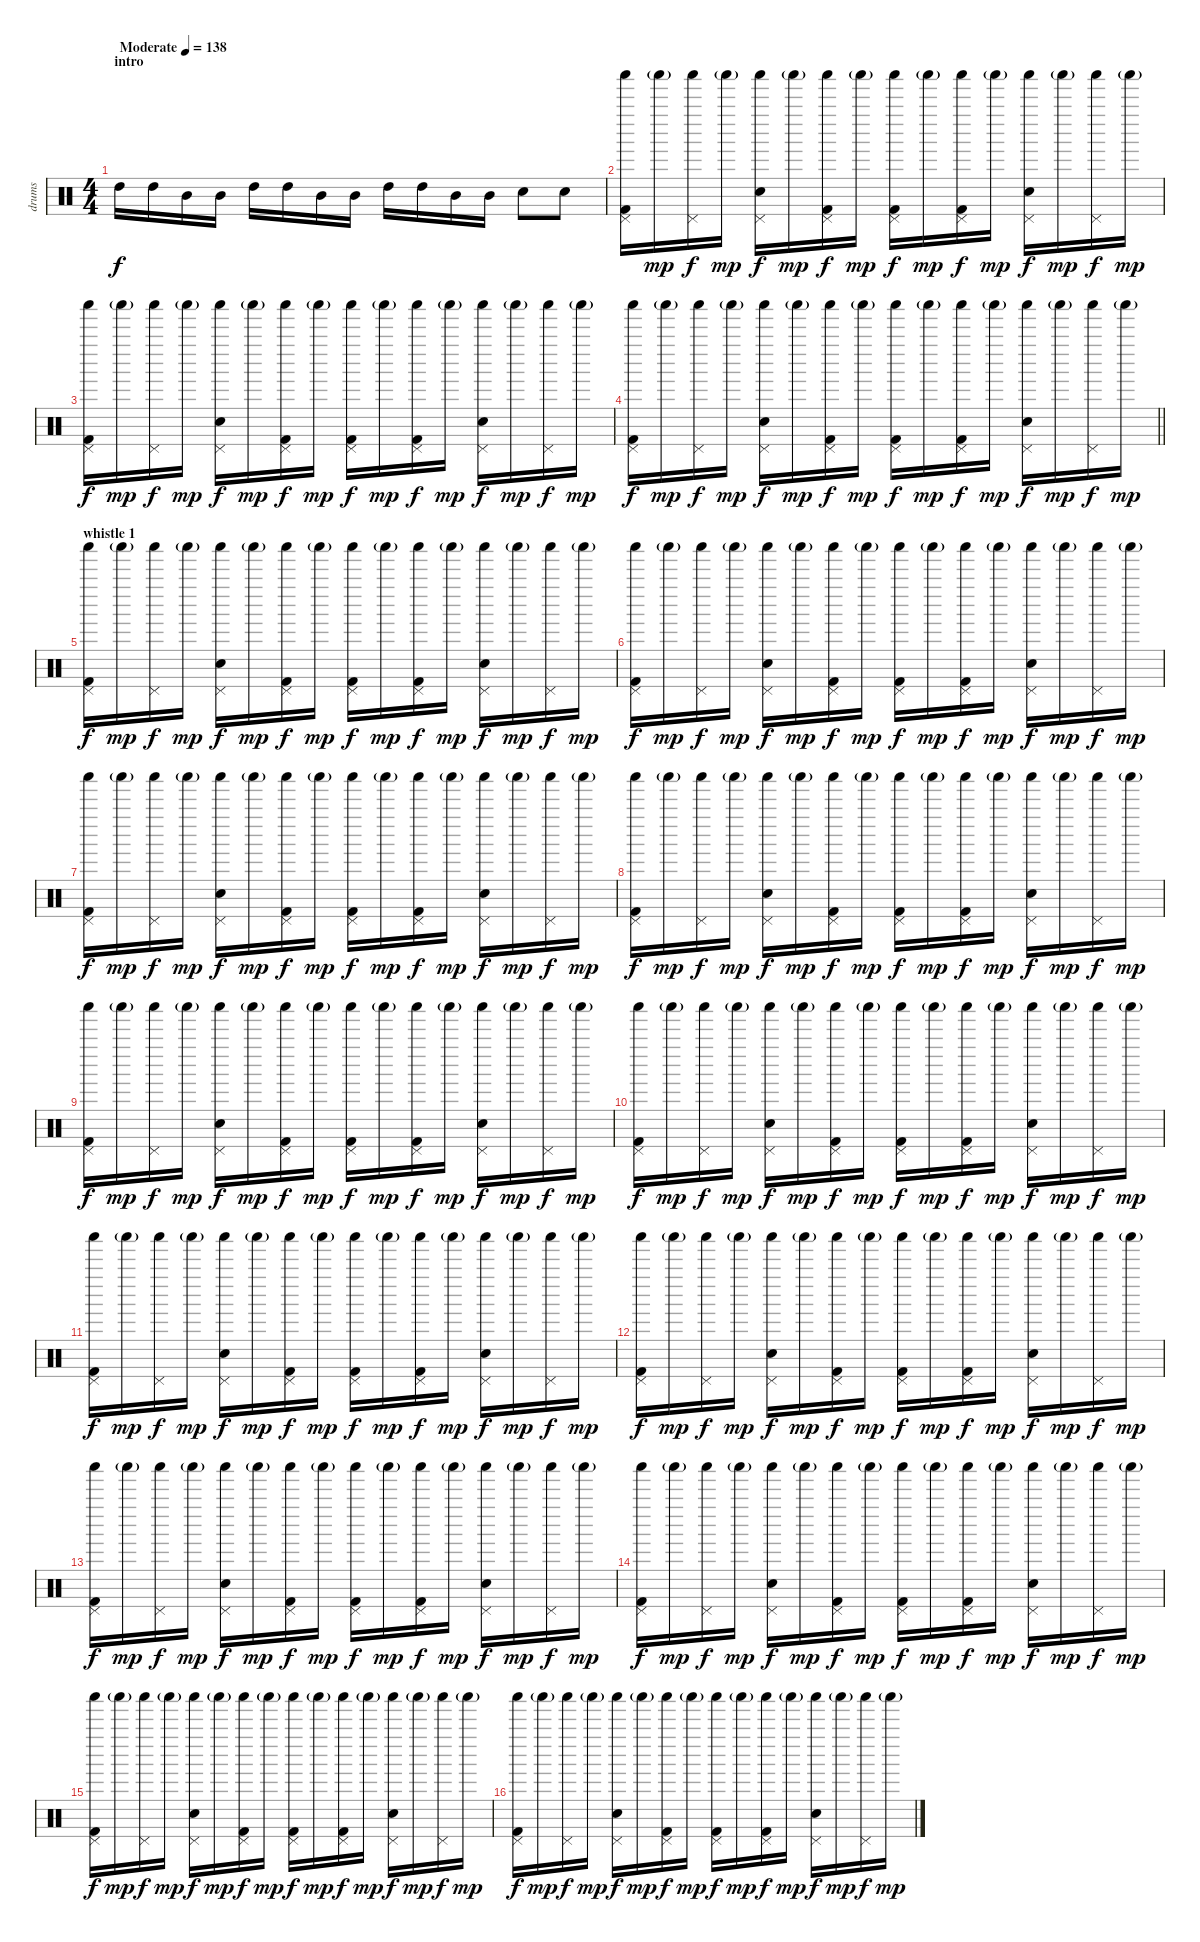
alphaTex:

\track ("drums" "drums") {instrument percussion}
\staff {score}
\articulation defaults
\ts (4 4)
\section ("" "intro")
\tempo (138 "Moderate")
\clef neutral
\ks c "High Tom (hit)".16{dy f} "High Tom (hit)".16 "Mid Tom (hit)".16 "Mid Tom (hit)".16 "High Tom (hit)".16 "High Tom (hit)".16 "Mid Tom (hit)".16 "Mid Tom (hit)".16 "High Tom (hit)".16 "High Tom (hit)".16 "Mid Tom (hit)".16 "Mid Tom (hit)".16 "Electric Snare (hit)".8 "Electric Snare (hit)".8
|
("Kick (hit) 2" "Pedal Hi-Hat (hit)" "Shaker (hit)").16 "Shaker (hit)"{g}.16{dy mp} ("Pedal Hi-Hat (hit)" "Shaker (hit)").16{dy f} "Shaker (hit)"{g}.16{dy mp} ("Electric Snare (hit)" "Pedal Hi-Hat (hit)" "Shaker (hit)").16{dy f} "Shaker (hit)"{g}.16{dy mp} ("Kick (hit) 2" "Pedal Hi-Hat (hit)" "Shaker (hit)").16{dy f} "Shaker (hit)"{g}.16{dy mp} ("Kick (hit) 2" "Pedal Hi-Hat (hit)" "Shaker (hit)").16{dy f} "Shaker (hit)"{g}.16{dy mp} ("Kick (hit) 2" "Pedal Hi-Hat (hit)" "Shaker (hit)").16{dy f} "Shaker (hit)"{g}.16{dy mp} ("Electric Snare (hit)" "Pedal Hi-Hat (hit)" "Shaker (hit)").16{dy f} "Shaker (hit)"{g}.16{dy mp} ("Pedal Hi-Hat (hit)" "Shaker (hit)").16{dy f} "Shaker (hit)"{g}.16{dy mp} |
("Kick (hit) 2" "Pedal Hi-Hat (hit)" "Shaker (hit)").16{dy f} "Shaker (hit)"{g}.16{dy mp} ("Pedal Hi-Hat (hit)" "Shaker (hit)").16{dy f} "Shaker (hit)"{g}.16{dy mp} ("Electric Snare (hit)" "Pedal Hi-Hat (hit)" "Shaker (hit)").16{dy f} "Shaker (hit)"{g}.16{dy mp} ("Kick (hit) 2" "Pedal Hi-Hat (hit)" "Shaker (hit)").16{dy f} "Shaker (hit)"{g}.16{dy mp} ("Kick (hit) 2" "Pedal Hi-Hat (hit)" "Shaker (hit)").16{dy f} "Shaker (hit)"{g}.16{dy mp} ("Kick (hit) 2" "Pedal Hi-Hat (hit)" "Shaker (hit)").16{dy f} "Shaker (hit)"{g}.16{dy mp} ("Electric Snare (hit)" "Pedal Hi-Hat (hit)" "Shaker (hit)").16{dy f} "Shaker (hit)"{g}.16{dy mp} ("Pedal Hi-Hat (hit)" "Shaker (hit)").16{dy f} "Shaker (hit)"{g}.16{dy mp} |
\barLineRight lightlight
("Kick (hit) 2" "Pedal Hi-Hat (hit)" "Shaker (hit)").16{dy f} "Shaker (hit)"{g}.16{dy mp} ("Pedal Hi-Hat (hit)" "Shaker (hit)").16{dy f} "Shaker (hit)"{g}.16{dy mp} ("Electric Snare (hit)" "Pedal Hi-Hat (hit)" "Shaker (hit)").16{dy f} "Shaker (hit)"{g}.16{dy mp} ("Kick (hit) 2" "Pedal Hi-Hat (hit)" "Shaker (hit)").16{dy f} "Shaker (hit)"{g}.16{dy mp} ("Kick (hit) 2" "Pedal Hi-Hat (hit)" "Shaker (hit)").16{dy f} "Shaker (hit)"{g}.16{dy mp} ("Kick (hit) 2" "Pedal Hi-Hat (hit)" "Shaker (hit)").16{dy f} "Shaker (hit)"{g}.16{dy mp} ("Electric Snare (hit)" "Pedal Hi-Hat (hit)" "Shaker (hit)").16{dy f} "Shaker (hit)"{g}.16{dy mp} ("Pedal Hi-Hat (hit)" "Shaker (hit)").16{dy f} "Shaker (hit)"{g}.16{dy mp} |
\section ("" "whistle 1")
("Kick (hit) 2" "Pedal Hi-Hat (hit)" "Shaker (hit)").16{dy f} "Shaker (hit)"{g}.16{dy mp} ("Pedal Hi-Hat (hit)" "Shaker (hit)").16{dy f} "Shaker (hit)"{g}.16{dy mp} ("Electric Snare (hit)" "Pedal Hi-Hat (hit)" "Shaker (hit)").16{dy f} "Shaker (hit)"{g}.16{dy mp} ("Kick (hit) 2" "Pedal Hi-Hat (hit)" "Shaker (hit)").16{dy f} "Shaker (hit)"{g}.16{dy mp} ("Kick (hit) 2" "Pedal Hi-Hat (hit)" "Shaker (hit)").16{dy f} "Shaker (hit)"{g}.16{dy mp} ("Kick (hit) 2" "Pedal Hi-Hat (hit)" "Shaker (hit)").16{dy f} "Shaker (hit)"{g}.16{dy mp} ("Electric Snare (hit)" "Pedal Hi-Hat (hit)" "Shaker (hit)").16{dy f} "Shaker (hit)"{g}.16{dy mp} ("Pedal Hi-Hat (hit)" "Shaker (hit)").16{dy f} "Shaker (hit)"{g}.16{dy mp} |
("Kick (hit) 2" "Pedal Hi-Hat (hit)" "Shaker (hit)").16{dy f} "Shaker (hit)"{g}.16{dy mp} ("Pedal Hi-Hat (hit)" "Shaker (hit)").16{dy f} "Shaker (hit)"{g}.16{dy mp} ("Electric Snare (hit)" "Pedal Hi-Hat (hit)" "Shaker (hit)").16{dy f} "Shaker (hit)"{g}.16{dy mp} ("Kick (hit) 2" "Pedal Hi-Hat (hit)" "Shaker (hit)").16{dy f} "Shaker (hit)"{g}.16{dy mp} ("Kick (hit) 2" "Pedal Hi-Hat (hit)" "Shaker (hit)").16{dy f} "Shaker (hit)"{g}.16{dy mp} ("Kick (hit) 2" "Pedal Hi-Hat (hit)" "Shaker (hit)").16{dy f} "Shaker (hit)"{g}.16{dy mp} ("Electric Snare (hit)" "Pedal Hi-Hat (hit)" "Shaker (hit)").16{dy f} "Shaker (hit)"{g}.16{dy mp} ("Pedal Hi-Hat (hit)" "Shaker (hit)").16{dy f} "Shaker (hit)"{g}.16{dy mp} |
("Kick (hit) 2" "Pedal Hi-Hat (hit)" "Shaker (hit)").16{dy f} "Shaker (hit)"{g}.16{dy mp} ("Pedal Hi-Hat (hit)" "Shaker (hit)").16{dy f} "Shaker (hit)"{g}.16{dy mp} ("Electric Snare (hit)" "Pedal Hi-Hat (hit)" "Shaker (hit)").16{dy f} "Shaker (hit)"{g}.16{dy mp} ("Kick (hit) 2" "Pedal Hi-Hat (hit)" "Shaker (hit)").16{dy f} "Shaker (hit)"{g}.16{dy mp} ("Kick (hit) 2" "Pedal Hi-Hat (hit)" "Shaker (hit)").16{dy f} "Shaker (hit)"{g}.16{dy mp} ("Kick (hit) 2" "Pedal Hi-Hat (hit)" "Shaker (hit)").16{dy f} "Shaker (hit)"{g}.16{dy mp} ("Electric Snare (hit)" "Pedal Hi-Hat (hit)" "Shaker (hit)").16{dy f} "Shaker (hit)"{g}.16{dy mp} ("Pedal Hi-Hat (hit)" "Shaker (hit)").16{dy f} "Shaker (hit)"{g}.16{dy mp} |
("Kick (hit) 2" "Pedal Hi-Hat (hit)" "Shaker (hit)").16{dy f} "Shaker (hit)"{g}.16{dy mp} ("Pedal Hi-Hat (hit)" "Shaker (hit)").16{dy f} "Shaker (hit)"{g}.16{dy mp} ("Electric Snare (hit)" "Pedal Hi-Hat (hit)" "Shaker (hit)").16{dy f} "Shaker (hit)"{g}.16{dy mp} ("Kick (hit) 2" "Pedal Hi-Hat (hit)" "Shaker (hit)").16{dy f} "Shaker (hit)"{g}.16{dy mp} ("Kick (hit) 2" "Pedal Hi-Hat (hit)" "Shaker (hit)").16{dy f} "Shaker (hit)"{g}.16{dy mp} ("Kick (hit) 2" "Pedal Hi-Hat (hit)" "Shaker (hit)").16{dy f} "Shaker (hit)"{g}.16{dy mp} ("Electric Snare (hit)" "Pedal Hi-Hat (hit)" "Shaker (hit)").16{dy f} "Shaker (hit)"{g}.16{dy mp} ("Pedal Hi-Hat (hit)" "Shaker (hit)").16{dy f} "Shaker (hit)"{g}.16{dy mp} |
("Kick (hit) 2" "Pedal Hi-Hat (hit)" "Shaker (hit)").16{dy f} "Shaker (hit)"{g}.16{dy mp} ("Pedal Hi-Hat (hit)" "Shaker (hit)").16{dy f} "Shaker (hit)"{g}.16{dy mp} ("Electric Snare (hit)" "Pedal Hi-Hat (hit)" "Shaker (hit)").16{dy f} "Shaker (hit)"{g}.16{dy mp} ("Kick (hit) 2" "Pedal Hi-Hat (hit)" "Shaker (hit)").16{dy f} "Shaker (hit)"{g}.16{dy mp} ("Kick (hit) 2" "Pedal Hi-Hat (hit)" "Shaker (hit)").16{dy f} "Shaker (hit)"{g}.16{dy mp} ("Kick (hit) 2" "Pedal Hi-Hat (hit)" "Shaker (hit)").16{dy f} "Shaker (hit)"{g}.16{dy mp} ("Electric Snare (hit)" "Pedal Hi-Hat (hit)" "Shaker (hit)").16{dy f} "Shaker (hit)"{g}.16{dy mp} ("Pedal Hi-Hat (hit)" "Shaker (hit)").16{dy f} "Shaker (hit)"{g}.16{dy mp} |
("Kick (hit) 2" "Pedal Hi-Hat (hit)" "Shaker (hit)").16{dy f} "Shaker (hit)"{g}.16{dy mp} ("Pedal Hi-Hat (hit)" "Shaker (hit)").16{dy f} "Shaker (hit)"{g}.16{dy mp} ("Electric Snare (hit)" "Pedal Hi-Hat (hit)" "Shaker (hit)").16{dy f} "Shaker (hit)"{g}.16{dy mp} ("Kick (hit) 2" "Pedal Hi-Hat (hit)" "Shaker (hit)").16{dy f} "Shaker (hit)"{g}.16{dy mp} ("Kick (hit) 2" "Pedal Hi-Hat (hit)" "Shaker (hit)").16{dy f} "Shaker (hit)"{g}.16{dy mp} ("Kick (hit) 2" "Pedal Hi-Hat (hit)" "Shaker (hit)").16{dy f} "Shaker (hit)"{g}.16{dy mp} ("Electric Snare (hit)" "Pedal Hi-Hat (hit)" "Shaker (hit)").16{dy f} "Shaker (hit)"{g}.16{dy mp} ("Pedal Hi-Hat (hit)" "Shaker (hit)").16{dy f} "Shaker (hit)"{g}.16{dy mp} |
("Kick (hit) 2" "Pedal Hi-Hat (hit)" "Shaker (hit)").16{dy f} "Shaker (hit)"{g}.16{dy mp} ("Pedal Hi-Hat (hit)" "Shaker (hit)").16{dy f} "Shaker (hit)"{g}.16{dy mp} ("Electric Snare (hit)" "Pedal Hi-Hat (hit)" "Shaker (hit)").16{dy f} "Shaker (hit)"{g}.16{dy mp} ("Kick (hit) 2" "Pedal Hi-Hat (hit)" "Shaker (hit)").16{dy f} "Shaker (hit)"{g}.16{dy mp} ("Kick (hit) 2" "Pedal Hi-Hat (hit)" "Shaker (hit)").16{dy f} "Shaker (hit)"{g}.16{dy mp} ("Kick (hit) 2" "Pedal Hi-Hat (hit)" "Shaker (hit)").16{dy f} "Shaker (hit)"{g}.16{dy mp} ("Electric Snare (hit)" "Pedal Hi-Hat (hit)" "Shaker (hit)").16{dy f} "Shaker (hit)"{g}.16{dy mp} ("Pedal Hi-Hat (hit)" "Shaker (hit)").16{dy f} "Shaker (hit)"{g}.16{dy mp} |
("Kick (hit) 2" "Pedal Hi-Hat (hit)" "Shaker (hit)").16{dy f} "Shaker (hit)"{g}.16{dy mp} ("Pedal Hi-Hat (hit)" "Shaker (hit)").16{dy f} "Shaker (hit)"{g}.16{dy mp} ("Electric Snare (hit)" "Pedal Hi-Hat (hit)" "Shaker (hit)").16{dy f} "Shaker (hit)"{g}.16{dy mp} ("Kick (hit) 2" "Pedal Hi-Hat (hit)" "Shaker (hit)").16{dy f} "Shaker (hit)"{g}.16{dy mp} ("Kick (hit) 2" "Pedal Hi-Hat (hit)" "Shaker (hit)").16{dy f} "Shaker (hit)"{g}.16{dy mp} ("Kick (hit) 2" "Pedal Hi-Hat (hit)" "Shaker (hit)").16{dy f} "Shaker (hit)"{g}.16{dy mp} ("Electric Snare (hit)" "Pedal Hi-Hat (hit)" "Shaker (hit)").16{dy f} "Shaker (hit)"{g}.16{dy mp} ("Pedal Hi-Hat (hit)" "Shaker (hit)").16{dy f} "Shaker (hit)"{g}.16{dy mp} |
("Kick (hit) 2" "Pedal Hi-Hat (hit)" "Shaker (hit)").16{dy f} "Shaker (hit)"{g}.16{dy mp} ("Pedal Hi-Hat (hit)" "Shaker (hit)").16{dy f} "Shaker (hit)"{g}.16{dy mp} ("Electric Snare (hit)" "Pedal Hi-Hat (hit)" "Shaker (hit)").16{dy f} "Shaker (hit)"{g}.16{dy mp} ("Kick (hit) 2" "Pedal Hi-Hat (hit)" "Shaker (hit)").16{dy f} "Shaker (hit)"{g}.16{dy mp} ("Kick (hit) 2" "Pedal Hi-Hat (hit)" "Shaker (hit)").16{dy f} "Shaker (hit)"{g}.16{dy mp} ("Kick (hit) 2" "Pedal Hi-Hat (hit)" "Shaker (hit)").16{dy f} "Shaker (hit)"{g}.16{dy mp} ("Electric Snare (hit)" "Pedal Hi-Hat (hit)" "Shaker (hit)").16{dy f} "Shaker (hit)"{g}.16{dy mp} ("Pedal Hi-Hat (hit)" "Shaker (hit)").16{dy f} "Shaker (hit)"{g}.16{dy mp} |
("Kick (hit) 2" "Pedal Hi-Hat (hit)" "Shaker (hit)").16{dy f} "Shaker (hit)"{g}.16{dy mp} ("Pedal Hi-Hat (hit)" "Shaker (hit)").16{dy f} "Shaker (hit)"{g}.16{dy mp} ("Electric Snare (hit)" "Pedal Hi-Hat (hit)" "Shaker (hit)").16{dy f} "Shaker (hit)"{g}.16{dy mp} ("Kick (hit) 2" "Pedal Hi-Hat (hit)" "Shaker (hit)").16{dy f} "Shaker (hit)"{g}.16{dy mp} ("Kick (hit) 2" "Pedal Hi-Hat (hit)" "Shaker (hit)").16{dy f} "Shaker (hit)"{g}.16{dy mp} ("Kick (hit) 2" "Pedal Hi-Hat (hit)" "Shaker (hit)").16{dy f} "Shaker (hit)"{g}.16{dy mp} ("Electric Snare (hit)" "Pedal Hi-Hat (hit)" "Shaker (hit)").16{dy f} "Shaker (hit)"{g}.16{dy mp} ("Pedal Hi-Hat (hit)" "Shaker (hit)").16{dy f} "Shaker (hit)"{g}.16{dy mp} |
("Kick (hit) 2" "Pedal Hi-Hat (hit)" "Shaker (hit)").16{dy f} "Shaker (hit)"{g}.16{dy mp} ("Pedal Hi-Hat (hit)" "Shaker (hit)").16{dy f} "Shaker (hit)"{g}.16{dy mp} ("Electric Snare (hit)" "Pedal Hi-Hat (hit)" "Shaker (hit)").16{dy f} "Shaker (hit)"{g}.16{dy mp} ("Kick (hit) 2" "Pedal Hi-Hat (hit)" "Shaker (hit)").16{dy f} "Shaker (hit)"{g}.16{dy mp} ("Kick (hit) 2" "Pedal Hi-Hat (hit)" "Shaker (hit)").16{dy f} "Shaker (hit)"{g}.16{dy mp} ("Kick (hit) 2" "Pedal Hi-Hat (hit)" "Shaker (hit)").16{dy f} "Shaker (hit)"{g}.16{dy mp} ("Electric Snare (hit)" "Pedal Hi-Hat (hit)" "Shaker (hit)").16{dy f} "Shaker (hit)"{g}.16{dy mp} ("Pedal Hi-Hat (hit)" "Shaker (hit)").16{dy f} "Shaker (hit)"{g}.16{dy mp} |
("Kick (hit) 2" "Pedal Hi-Hat (hit)" "Shaker (hit)").16{dy f} "Shaker (hit)"{g}.16{dy mp} ("Pedal Hi-Hat (hit)" "Shaker (hit)").16{dy f} "Shaker (hit)"{g}.16{dy mp} ("Electric Snare (hit)" "Pedal Hi-Hat (hit)" "Shaker (hit)").16{dy f} "Shaker (hit)"{g}.16{dy mp} ("Kick (hit) 2" "Pedal Hi-Hat (hit)" "Shaker (hit)").16{dy f} "Shaker (hit)"{g}.16{dy mp} ("Kick (hit) 2" "Pedal Hi-Hat (hit)" "Shaker (hit)").16{dy f} "Shaker (hit)"{g}.16{dy mp} ("Kick (hit) 2" "Pedal Hi-Hat (hit)" "Shaker (hit)").16{dy f} "Shaker (hit)"{g}.16{dy mp} ("Electric Snare (hit)" "Pedal Hi-Hat (hit)" "Shaker (hit)").16{dy f} "Shaker (hit)"{g}.16{dy mp} ("Pedal Hi-Hat (hit)" "Shaker (hit)").16{dy f} "Shaker (hit)"{g}.16{dy mp}
